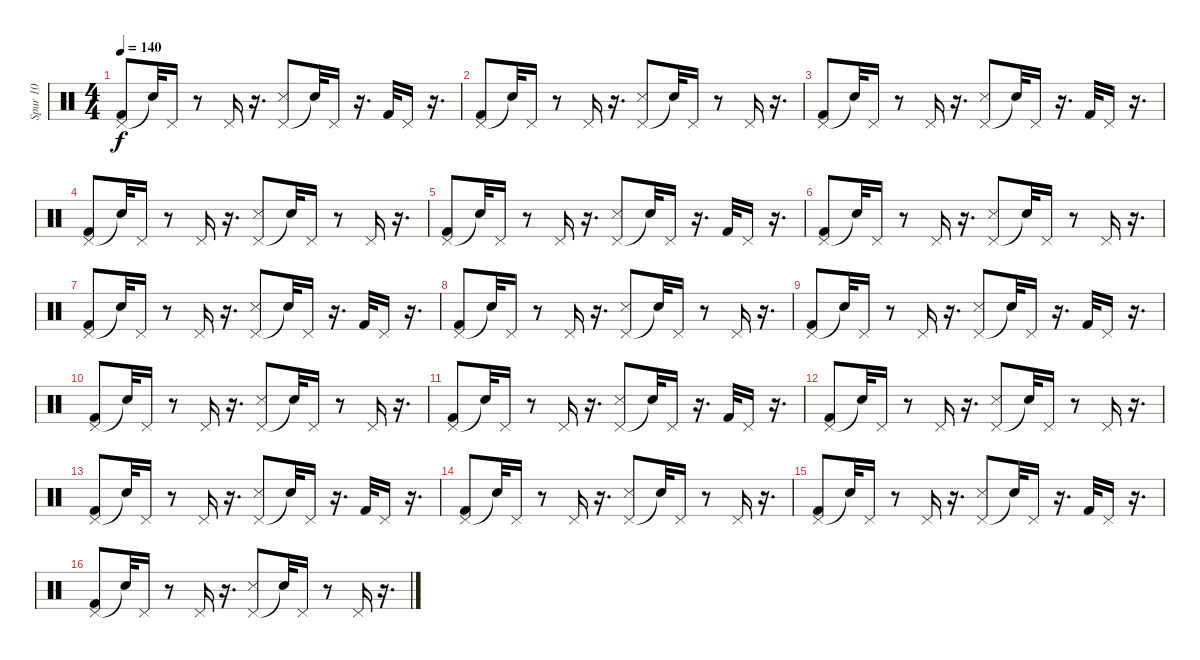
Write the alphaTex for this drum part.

\track ("Spur 10" "Spur 10") {instrument percussion}
\staff {score}
\articulation defaults
\ts (4 4)
\tempo 140
\clef neutral
\ks c
("Pedal Hi-Hat (hit)" "Kick (hit) 2").8{dy f} "Snare (hit)"{t}.32 "Pedal Hi-Hat (hit)".16 r.8 "Pedal Hi-Hat (hit)".16 r.16{d} ("Pedal Hi-Hat (hit)" "Snare (side stick) 3").8 "Snare (hit)"{t}.32 "Pedal Hi-Hat (hit)".16 r.16{d} "Kick (hit) 2".32 "Pedal Hi-Hat (hit)".16 r.16{d} |
("Pedal Hi-Hat (hit)" "Kick (hit) 2").8 "Snare (hit)"{t}.32 "Pedal Hi-Hat (hit)".16 r.8 "Pedal Hi-Hat (hit)".16 r.16{d} ("Pedal Hi-Hat (hit)" "Snare (side stick) 3").8 "Snare (hit)"{t}.32 "Pedal Hi-Hat (hit)".16 r.8 "Pedal Hi-Hat (hit)".16 r.16{d} |
("Pedal Hi-Hat (hit)" "Kick (hit) 2").8 "Snare (hit)"{t}.32 "Pedal Hi-Hat (hit)".16 r.8 "Pedal Hi-Hat (hit)".16 r.16{d} ("Pedal Hi-Hat (hit)" "Snare (side stick) 3").8 "Snare (hit)"{t}.32 "Pedal Hi-Hat (hit)".16 r.16{d} "Kick (hit) 2".32 "Pedal Hi-Hat (hit)".16 r.16{d} |
("Pedal Hi-Hat (hit)" "Kick (hit) 2").8 "Snare (hit)"{t}.32 "Pedal Hi-Hat (hit)".16 r.8 "Pedal Hi-Hat (hit)".16 r.16{d} ("Pedal Hi-Hat (hit)" "Snare (side stick) 3").8 "Snare (hit)"{t}.32 "Pedal Hi-Hat (hit)".16 r.8 "Pedal Hi-Hat (hit)".16 r.16{d} |
("Pedal Hi-Hat (hit)" "Kick (hit) 2").8 "Snare (hit)"{t}.32 "Pedal Hi-Hat (hit)".16 r.8 "Pedal Hi-Hat (hit)".16 r.16{d} ("Pedal Hi-Hat (hit)" "Snare (side stick) 3").8 "Snare (hit)"{t}.32 "Pedal Hi-Hat (hit)".16 r.16{d} "Kick (hit) 2".32 "Pedal Hi-Hat (hit)".16 r.16{d} |
("Pedal Hi-Hat (hit)" "Kick (hit) 2").8 "Snare (hit)"{t}.32 "Pedal Hi-Hat (hit)".16 r.8 "Pedal Hi-Hat (hit)".16 r.16{d} ("Pedal Hi-Hat (hit)" "Snare (side stick) 3").8 "Snare (hit)"{t}.32 "Pedal Hi-Hat (hit)".16 r.8 "Pedal Hi-Hat (hit)".16 r.16{d} |
("Pedal Hi-Hat (hit)" "Kick (hit) 2").8 "Snare (hit)"{t}.32 "Pedal Hi-Hat (hit)".16 r.8 "Pedal Hi-Hat (hit)".16 r.16{d} ("Pedal Hi-Hat (hit)" "Snare (side stick) 3").8 "Snare (hit)"{t}.32 "Pedal Hi-Hat (hit)".16 r.16{d} "Kick (hit) 2".32 "Pedal Hi-Hat (hit)".16 r.16{d} |
("Pedal Hi-Hat (hit)" "Kick (hit) 2").8 "Snare (hit)"{t}.32 "Pedal Hi-Hat (hit)".16 r.8 "Pedal Hi-Hat (hit)".16 r.16{d} ("Pedal Hi-Hat (hit)" "Snare (side stick) 3").8 "Snare (hit)"{t}.32 "Pedal Hi-Hat (hit)".16 r.8 "Pedal Hi-Hat (hit)".16 r.16{d} |
("Pedal Hi-Hat (hit)" "Kick (hit) 2").8 "Snare (hit)"{t}.32 "Pedal Hi-Hat (hit)".16 r.8 "Pedal Hi-Hat (hit)".16 r.16{d} ("Pedal Hi-Hat (hit)" "Snare (side stick) 3").8 "Snare (hit)"{t}.32 "Pedal Hi-Hat (hit)".16 r.16{d} "Kick (hit) 2".32 "Pedal Hi-Hat (hit)".16 r.16{d} |
("Pedal Hi-Hat (hit)" "Kick (hit) 2").8 "Snare (hit)"{t}.32 "Pedal Hi-Hat (hit)".16 r.8 "Pedal Hi-Hat (hit)".16 r.16{d} ("Pedal Hi-Hat (hit)" "Snare (side stick) 3").8 "Snare (hit)"{t}.32 "Pedal Hi-Hat (hit)".16 r.8 "Pedal Hi-Hat (hit)".16 r.16{d} |
("Pedal Hi-Hat (hit)" "Kick (hit) 2").8 "Snare (hit)"{t}.32 "Pedal Hi-Hat (hit)".16 r.8 "Pedal Hi-Hat (hit)".16 r.16{d} ("Pedal Hi-Hat (hit)" "Snare (side stick) 3").8 "Snare (hit)"{t}.32 "Pedal Hi-Hat (hit)".16 r.16{d} "Kick (hit) 2".32 "Pedal Hi-Hat (hit)".16 r.16{d} |
("Pedal Hi-Hat (hit)" "Kick (hit) 2").8 "Snare (hit)"{t}.32 "Pedal Hi-Hat (hit)".16 r.8 "Pedal Hi-Hat (hit)".16 r.16{d} ("Pedal Hi-Hat (hit)" "Snare (side stick) 3").8 "Snare (hit)"{t}.32 "Pedal Hi-Hat (hit)".16 r.8 "Pedal Hi-Hat (hit)".16 r.16{d} |
("Pedal Hi-Hat (hit)" "Kick (hit) 2").8 "Snare (hit)"{t}.32 "Pedal Hi-Hat (hit)".16 r.8 "Pedal Hi-Hat (hit)".16 r.16{d} ("Pedal Hi-Hat (hit)" "Snare (side stick) 3").8 "Snare (hit)"{t}.32 "Pedal Hi-Hat (hit)".16 r.16{d} "Kick (hit) 2".32 "Pedal Hi-Hat (hit)".16 r.16{d} |
("Pedal Hi-Hat (hit)" "Kick (hit) 2").8 "Snare (hit)"{t}.32 "Pedal Hi-Hat (hit)".16 r.8 "Pedal Hi-Hat (hit)".16 r.16{d} ("Pedal Hi-Hat (hit)" "Snare (side stick) 3").8 "Snare (hit)"{t}.32 "Pedal Hi-Hat (hit)".16 r.8 "Pedal Hi-Hat (hit)".16 r.16{d} |
("Pedal Hi-Hat (hit)" "Kick (hit) 2").8 "Snare (hit)"{t}.32 "Pedal Hi-Hat (hit)".16 r.8 "Pedal Hi-Hat (hit)".16 r.16{d} ("Pedal Hi-Hat (hit)" "Snare (side stick) 3").8 "Snare (hit)"{t}.32 "Pedal Hi-Hat (hit)".16 r.16{d} "Kick (hit) 2".32 "Pedal Hi-Hat (hit)".16 r.16{d} |
("Pedal Hi-Hat (hit)" "Kick (hit) 2").8 "Snare (hit)"{t}.32 "Pedal Hi-Hat (hit)".16 r.8 "Pedal Hi-Hat (hit)".16 r.16{d} ("Pedal Hi-Hat (hit)" "Snare (side stick) 3").8 "Snare (hit)"{t}.32 "Pedal Hi-Hat (hit)".16 r.8 "Pedal Hi-Hat (hit)".16 r.16{d}
